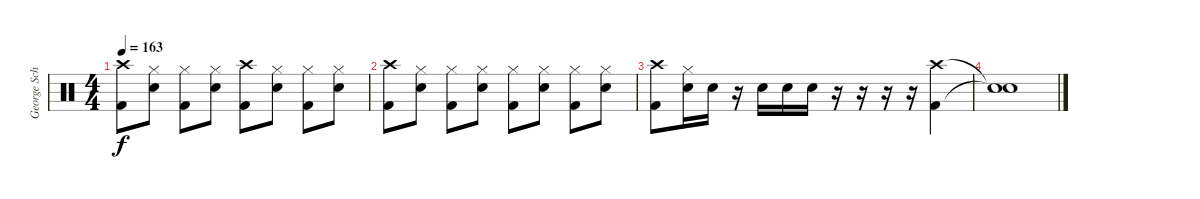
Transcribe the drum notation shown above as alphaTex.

\track ("George Schwindt" "George Sch") {instrument percussion}
\staff {score}
\articulation defaults
\ts (4 4)
\tempo 163
\clef neutral
\ks c
("Crash high (hit)" "Kick (hit) 2").8{dy f} ("Hi-Hat (closed)" "Snare (hit) 2").8 ("Hi-Hat (closed)" "Kick (hit) 2").8 ("Hi-Hat (closed)" "Snare (hit) 2").8 ("Crash high (hit)" "Kick (hit) 2").8 ("Hi-Hat (closed)" "Snare (hit) 2").8 ("Hi-Hat (closed)" "Kick (hit) 2").8 ("Hi-Hat (closed)" "Snare (hit) 2").8 |
("Crash high (hit)" "Kick (hit) 2").8 ("Hi-Hat (closed)" "Snare (hit) 2").8 ("Hi-Hat (closed)" "Kick (hit) 2").8 ("Hi-Hat (closed)" "Snare (hit) 2").8 ("Hi-Hat (closed)" "Kick (hit) 2").8 ("Hi-Hat (closed)" "Snare (hit) 2").8 ("Hi-Hat (closed)" "Kick (hit) 2").8 ("Hi-Hat (closed)" "Snare (hit) 2").8 |
("Crash high (hit)" "Kick (hit) 2").8 ("Hi-Hat (closed)" "Snare (hit) 2").16 "Snare (hit) 2".16 r.16 "Snare (hit) 2".16 "Snare (hit) 2".16 "Snare (hit) 2".16 r.16 r.16 r.16 r.16 ("Crash high (hit)" "Kick (hit) 2").4 |
("Snare (hit)"{t} "Snare (hit)"{t}).1
